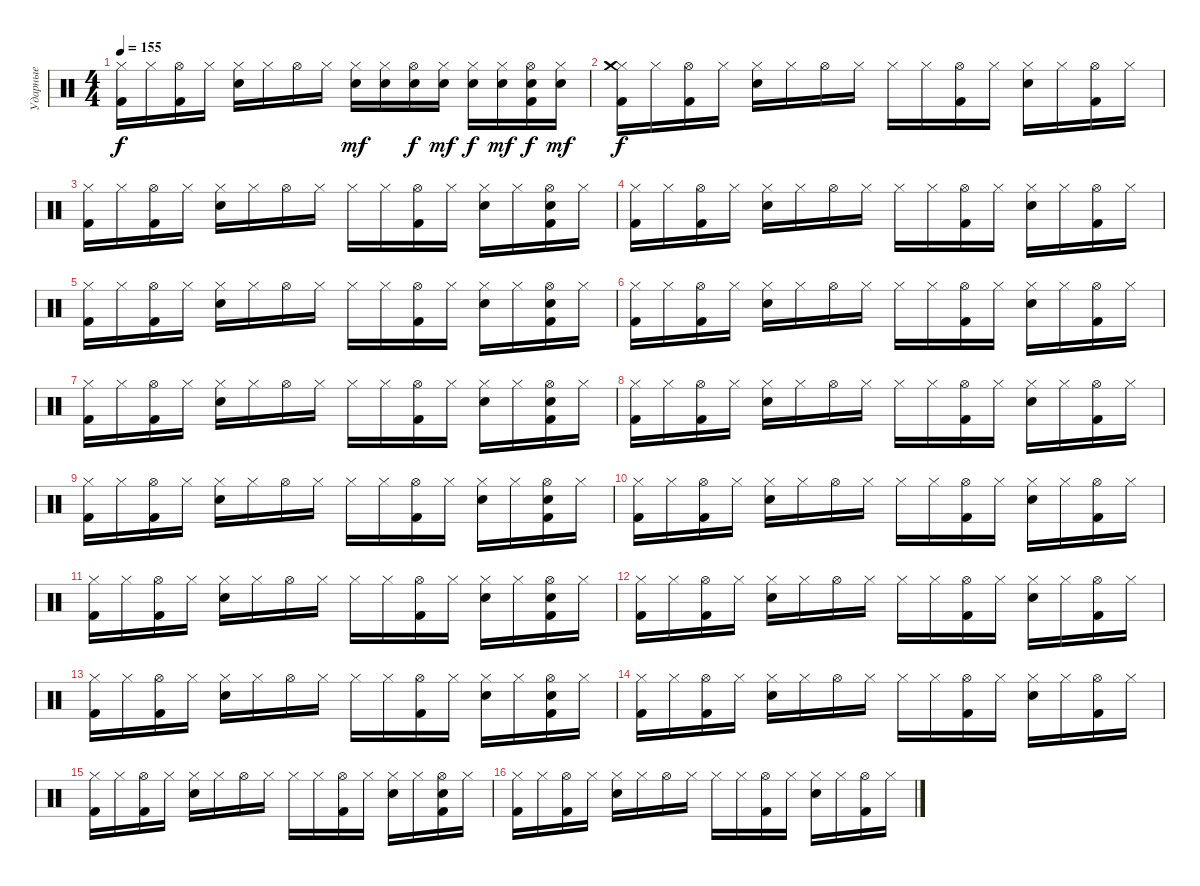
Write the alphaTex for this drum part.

\track ("Ударные" "Ударные") {instrument percussion}
\staff {score}
\articulation defaults
\ts (4 4)
\tempo 155
\clef neutral
\ks c
("Hi-Hat (closed)" "Kick (hit) 2").16{dy f} "Hi-Hat (closed)".16 ("Hi-Hat (open)" "Kick (hit) 2").16 "Hi-Hat (closed)".16 ("Hi-Hat (closed)" "Electric Snare (hit)").16 "Hi-Hat (closed)".16 "Hi-Hat (open)".16 "Hi-Hat (closed)".16 ("Hi-Hat (closed)" "Electric Snare (hit)").16{dy mf} ("Hi-Hat (closed)" "Electric Snare (hit)").16 ("Hi-Hat (open)" "Electric Snare (hit)").16{dy f} ("Hi-Hat (closed)" "Electric Snare (hit)").16{dy mf} ("Hi-Hat (closed)" "Electric Snare (hit)").16{dy f} ("Hi-Hat (closed)" "Electric Snare (hit)").16{dy mf} ("Hi-Hat (open)" "Kick (hit) 2" "Electric Snare (hit)").16{dy f} ("Hi-Hat (closed)" "Electric Snare (hit)").16{dy mf} |
("Hi-Hat (closed)" "Kick (hit) 2" "Crash medium (hit)").16{dy f} "Hi-Hat (closed)".16 ("Hi-Hat (open)" "Kick (hit) 2").16 "Hi-Hat (closed)".16 ("Hi-Hat (closed)" "Electric Snare (hit)").16 "Hi-Hat (closed)".16 "Hi-Hat (open)".16 "Hi-Hat (closed)".16 "Hi-Hat (closed)".16 "Hi-Hat (closed)".16 ("Hi-Hat (open)" "Kick (hit) 2").16 "Hi-Hat (closed)".16 ("Hi-Hat (closed)" "Electric Snare (hit)").16 "Hi-Hat (closed)".16 ("Hi-Hat (open)" "Kick (hit) 2").16 "Hi-Hat (closed)".16 |
("Hi-Hat (closed)" "Kick (hit) 2").16 "Hi-Hat (closed)".16 ("Hi-Hat (open)" "Kick (hit) 2").16 "Hi-Hat (closed)".16 ("Hi-Hat (closed)" "Electric Snare (hit)").16 "Hi-Hat (closed)".16 "Hi-Hat (open)".16 "Hi-Hat (closed)".16 "Hi-Hat (closed)".16 "Hi-Hat (closed)".16 ("Hi-Hat (open)" "Kick (hit) 2").16 "Hi-Hat (closed)".16 ("Hi-Hat (closed)" "Electric Snare (hit)").16 "Hi-Hat (closed)".16 ("Hi-Hat (open)" "Kick (hit) 2" "Electric Snare (hit)").16 "Hi-Hat (closed)".16 |
("Hi-Hat (closed)" "Kick (hit) 2").16 "Hi-Hat (closed)".16 ("Hi-Hat (open)" "Kick (hit) 2").16 "Hi-Hat (closed)".16 ("Hi-Hat (closed)" "Electric Snare (hit)").16 "Hi-Hat (closed)".16 "Hi-Hat (open)".16 "Hi-Hat (closed)".16 "Hi-Hat (closed)".16 "Hi-Hat (closed)".16 ("Hi-Hat (open)" "Kick (hit) 2").16 "Hi-Hat (closed)".16 ("Hi-Hat (closed)" "Electric Snare (hit)").16 "Hi-Hat (closed)".16 ("Hi-Hat (open)" "Kick (hit) 2").16 "Hi-Hat (closed)".16 |
("Hi-Hat (closed)" "Kick (hit) 2").16 "Hi-Hat (closed)".16 ("Hi-Hat (open)" "Kick (hit) 2").16 "Hi-Hat (closed)".16 ("Hi-Hat (closed)" "Electric Snare (hit)").16 "Hi-Hat (closed)".16 "Hi-Hat (open)".16 "Hi-Hat (closed)".16 "Hi-Hat (closed)".16 "Hi-Hat (closed)".16 ("Hi-Hat (open)" "Kick (hit) 2").16 "Hi-Hat (closed)".16 ("Hi-Hat (closed)" "Electric Snare (hit)").16 "Hi-Hat (closed)".16 ("Hi-Hat (open)" "Kick (hit) 2" "Electric Snare (hit)").16 "Hi-Hat (closed)".16 |
("Hi-Hat (closed)" "Kick (hit) 2").16 "Hi-Hat (closed)".16 ("Hi-Hat (open)" "Kick (hit) 2").16 "Hi-Hat (closed)".16 ("Hi-Hat (closed)" "Electric Snare (hit)").16 "Hi-Hat (closed)".16 "Hi-Hat (open)".16 "Hi-Hat (closed)".16 "Hi-Hat (closed)".16 "Hi-Hat (closed)".16 ("Hi-Hat (open)" "Kick (hit) 2").16 "Hi-Hat (closed)".16 ("Hi-Hat (closed)" "Electric Snare (hit)").16 "Hi-Hat (closed)".16 ("Hi-Hat (open)" "Kick (hit) 2").16 "Hi-Hat (closed)".16 |
("Hi-Hat (closed)" "Kick (hit) 2").16 "Hi-Hat (closed)".16 ("Hi-Hat (open)" "Kick (hit) 2").16 "Hi-Hat (closed)".16 ("Hi-Hat (closed)" "Electric Snare (hit)").16 "Hi-Hat (closed)".16 "Hi-Hat (open)".16 "Hi-Hat (closed)".16 "Hi-Hat (closed)".16 "Hi-Hat (closed)".16 ("Hi-Hat (open)" "Kick (hit) 2").16 "Hi-Hat (closed)".16 ("Hi-Hat (closed)" "Electric Snare (hit)").16 "Hi-Hat (closed)".16 ("Hi-Hat (open)" "Kick (hit) 2" "Electric Snare (hit)").16 "Hi-Hat (closed)".16 |
("Hi-Hat (closed)" "Kick (hit) 2").16 "Hi-Hat (closed)".16 ("Hi-Hat (open)" "Kick (hit) 2").16 "Hi-Hat (closed)".16 ("Hi-Hat (closed)" "Electric Snare (hit)").16 "Hi-Hat (closed)".16 "Hi-Hat (open)".16 "Hi-Hat (closed)".16 "Hi-Hat (closed)".16 "Hi-Hat (closed)".16 ("Hi-Hat (open)" "Kick (hit) 2").16 "Hi-Hat (closed)".16 ("Hi-Hat (closed)" "Electric Snare (hit)").16 "Hi-Hat (closed)".16 ("Hi-Hat (open)" "Kick (hit) 2").16 "Hi-Hat (closed)".16 |
("Hi-Hat (closed)" "Kick (hit) 2").16 "Hi-Hat (closed)".16 ("Hi-Hat (open)" "Kick (hit) 2").16 "Hi-Hat (closed)".16 ("Hi-Hat (closed)" "Electric Snare (hit)").16 "Hi-Hat (closed)".16 "Hi-Hat (open)".16 "Hi-Hat (closed)".16 "Hi-Hat (closed)".16 "Hi-Hat (closed)".16 ("Hi-Hat (open)" "Kick (hit) 2").16 "Hi-Hat (closed)".16 ("Hi-Hat (closed)" "Electric Snare (hit)").16 "Hi-Hat (closed)".16 ("Hi-Hat (open)" "Kick (hit) 2" "Electric Snare (hit)").16 "Hi-Hat (closed)".16 |
("Hi-Hat (closed)" "Kick (hit) 2").16 "Hi-Hat (closed)".16 ("Hi-Hat (open)" "Kick (hit) 2").16 "Hi-Hat (closed)".16 ("Hi-Hat (closed)" "Electric Snare (hit)").16 "Hi-Hat (closed)".16 "Hi-Hat (open)".16 "Hi-Hat (closed)".16 "Hi-Hat (closed)".16 "Hi-Hat (closed)".16 ("Hi-Hat (open)" "Kick (hit) 2").16 "Hi-Hat (closed)".16 ("Hi-Hat (closed)" "Electric Snare (hit)").16 "Hi-Hat (closed)".16 ("Hi-Hat (open)" "Kick (hit) 2").16 "Hi-Hat (closed)".16 |
("Hi-Hat (closed)" "Kick (hit) 2").16 "Hi-Hat (closed)".16 ("Hi-Hat (open)" "Kick (hit) 2").16 "Hi-Hat (closed)".16 ("Hi-Hat (closed)" "Electric Snare (hit)").16 "Hi-Hat (closed)".16 "Hi-Hat (open)".16 "Hi-Hat (closed)".16 "Hi-Hat (closed)".16 "Hi-Hat (closed)".16 ("Hi-Hat (open)" "Kick (hit) 2").16 "Hi-Hat (closed)".16 ("Hi-Hat (closed)" "Electric Snare (hit)").16 "Hi-Hat (closed)".16 ("Hi-Hat (open)" "Kick (hit) 2" "Electric Snare (hit)").16 "Hi-Hat (closed)".16 |
("Hi-Hat (closed)" "Kick (hit) 2").16 "Hi-Hat (closed)".16 ("Hi-Hat (open)" "Kick (hit) 2").16 "Hi-Hat (closed)".16 ("Hi-Hat (closed)" "Electric Snare (hit)").16 "Hi-Hat (closed)".16 "Hi-Hat (open)".16 "Hi-Hat (closed)".16 "Hi-Hat (closed)".16 "Hi-Hat (closed)".16 ("Hi-Hat (open)" "Kick (hit) 2").16 "Hi-Hat (closed)".16 ("Hi-Hat (closed)" "Electric Snare (hit)").16 "Hi-Hat (closed)".16 ("Hi-Hat (open)" "Kick (hit) 2").16 "Hi-Hat (closed)".16 |
("Hi-Hat (closed)" "Kick (hit) 2").16 "Hi-Hat (closed)".16 ("Hi-Hat (open)" "Kick (hit) 2").16 "Hi-Hat (closed)".16 ("Hi-Hat (closed)" "Electric Snare (hit)").16 "Hi-Hat (closed)".16 "Hi-Hat (open)".16 "Hi-Hat (closed)".16 "Hi-Hat (closed)".16 "Hi-Hat (closed)".16 ("Hi-Hat (open)" "Kick (hit) 2").16 "Hi-Hat (closed)".16 ("Hi-Hat (closed)" "Electric Snare (hit)").16 "Hi-Hat (closed)".16 ("Hi-Hat (open)" "Kick (hit) 2" "Electric Snare (hit)").16 "Hi-Hat (closed)".16 |
("Hi-Hat (closed)" "Kick (hit) 2").16 "Hi-Hat (closed)".16 ("Hi-Hat (open)" "Kick (hit) 2").16 "Hi-Hat (closed)".16 ("Hi-Hat (closed)" "Electric Snare (hit)").16 "Hi-Hat (closed)".16 "Hi-Hat (open)".16 "Hi-Hat (closed)".16 "Hi-Hat (closed)".16 "Hi-Hat (closed)".16 ("Hi-Hat (open)" "Kick (hit) 2").16 "Hi-Hat (closed)".16 ("Hi-Hat (closed)" "Electric Snare (hit)").16 "Hi-Hat (closed)".16 ("Hi-Hat (open)" "Kick (hit) 2").16 "Hi-Hat (closed)".16 |
("Hi-Hat (closed)" "Kick (hit) 2").16 "Hi-Hat (closed)".16 ("Hi-Hat (open)" "Kick (hit) 2").16 "Hi-Hat (closed)".16 ("Hi-Hat (closed)" "Electric Snare (hit)").16 "Hi-Hat (closed)".16 "Hi-Hat (open)".16 "Hi-Hat (closed)".16 "Hi-Hat (closed)".16 "Hi-Hat (closed)".16 ("Hi-Hat (open)" "Kick (hit) 2").16 "Hi-Hat (closed)".16 ("Hi-Hat (closed)" "Electric Snare (hit)").16 "Hi-Hat (closed)".16 ("Hi-Hat (open)" "Kick (hit) 2" "Electric Snare (hit)").16 "Hi-Hat (closed)".16 |
("Hi-Hat (closed)" "Kick (hit) 2").16 "Hi-Hat (closed)".16 ("Hi-Hat (open)" "Kick (hit) 2").16 "Hi-Hat (closed)".16 ("Hi-Hat (closed)" "Electric Snare (hit)").16 "Hi-Hat (closed)".16 "Hi-Hat (open)".16 "Hi-Hat (closed)".16 "Hi-Hat (closed)".16 "Hi-Hat (closed)".16 ("Hi-Hat (open)" "Kick (hit) 2").16 "Hi-Hat (closed)".16 ("Hi-Hat (closed)" "Electric Snare (hit)").16 "Hi-Hat (closed)".16 ("Hi-Hat (open)" "Kick (hit) 2").16 "Hi-Hat (closed)".16
